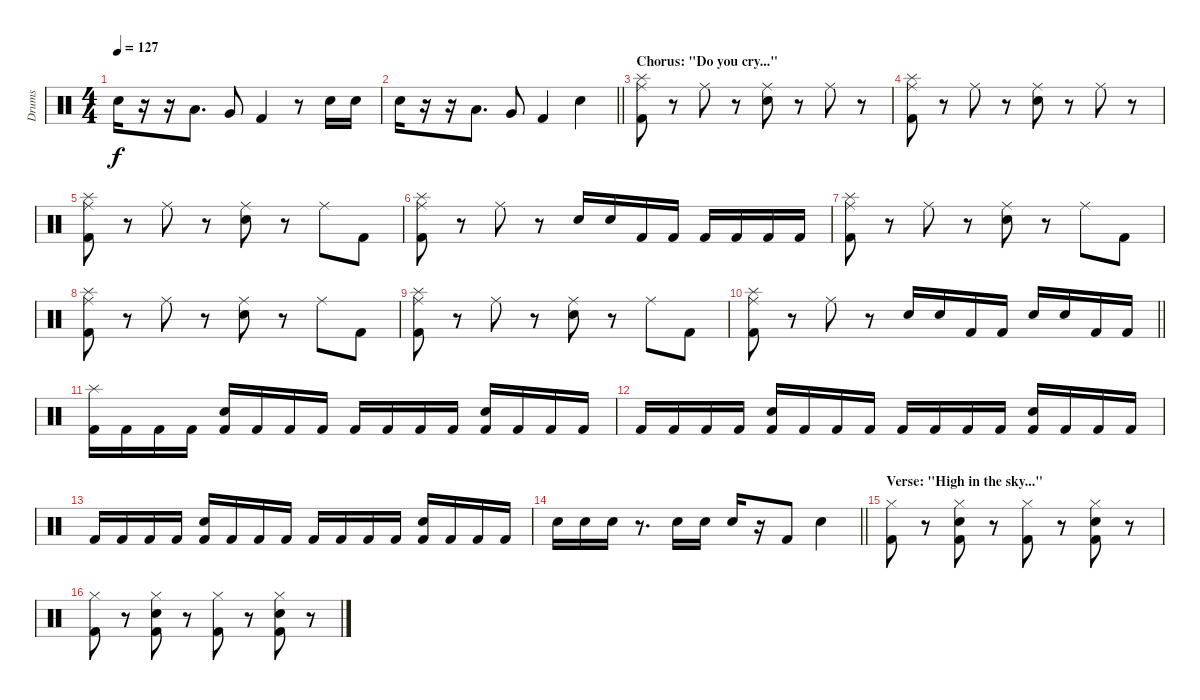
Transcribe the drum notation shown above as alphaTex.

\track ("Drums" "Drums") {instrument percussion}
\staff {score}
\articulation defaults
\ts (4 4)
\tempo 127
\clef neutral
\ks c "Electric Snare (hit)".16{dy f}
r.16 r.16 "Low Tom (hit)".8{d} "Very Low Tom (hit)".8 "Kick (hit) 2".4 r.8 "Electric Snare (hit)".16 "Electric Snare (hit)".16 |
\barLineRight lightlight "Electric Snare (hit)".16
r.16 r.16 "Low Tom (hit)".8{d} "Very Low Tom (hit)".8 "Kick (hit) 2".4 "Electric Snare (hit)".4 |
\section ("" "Chorus: \"Do you cry...\"")
("Ride (middle)" "Kick (hit) 2" "Splash (hit)").8 r.8 "Ride (middle)".8 r.8 ("Ride (middle)" "Electric Snare (hit)").8 r.8 "Ride (middle)".8 r.8 |
("Ride (middle)" "Kick (hit) 2" "Splash (hit)").8 r.8 "Ride (middle)".8 r.8 ("Ride (middle)" "Electric Snare (hit)").8 r.8 "Ride (middle)".8 r.8 |
("Ride (middle)" "Kick (hit) 2" "Splash (hit)").8 r.8 "Ride (middle)".8 r.8 ("Ride (middle)" "Electric Snare (hit)").8 r.8 "Ride (middle)".8 "Kick (hit) 2".8 |
("Ride (middle)" "Kick (hit) 2" "Splash (hit)").8 r.8 "Ride (middle)".8 r.8 "Electric Snare (hit)".16 "Electric Snare (hit)".16 "Kick (hit) 2".16 "Kick (hit) 2".16 "Kick (hit) 2".16 "Kick (hit) 2".16 "Kick (hit) 2".16 "Kick (hit) 2".16 |
("Ride (middle)" "Kick (hit) 2" "Splash (hit)").8 r.8 "Ride (middle)".8 r.8 ("Ride (middle)" "Electric Snare (hit)").8 r.8 "Ride (middle)".8 "Kick (hit) 2".8 |
("Ride (middle)" "Kick (hit) 2" "Splash (hit)").8 r.8 "Ride (middle)".8 r.8 ("Ride (middle)" "Electric Snare (hit)").8 r.8 "Ride (middle)".8 "Kick (hit) 2".8 |
("Ride (middle)" "Kick (hit) 2" "Splash (hit)").8 r.8 "Ride (middle)".8 r.8 ("Ride (middle)" "Electric Snare (hit)").8 r.8 "Ride (middle)".8 "Kick (hit) 2".8 |
\barLineRight lightlight
("Ride (middle)" "Kick (hit) 2" "Splash (hit)").8 r.8 "Ride (middle)".8 r.8 "Electric Snare (hit)".16 "Electric Snare (hit)".16 "Kick (hit) 2".16 "Kick (hit) 2".16 "Electric Snare (hit)".16 "Electric Snare (hit)".16 "Kick (hit) 2".16 "Kick (hit) 2".16 |
\section ("" "")
("Kick (hit) 2" "Splash (hit)").16 "Kick (hit) 2".16 "Kick (hit) 2".16 "Kick (hit) 2".16 ("Kick (hit) 2" "Electric Snare (hit)").16 "Kick (hit) 2".16 "Kick (hit) 2".16 "Kick (hit) 2".16 "Kick (hit) 2".16 "Kick (hit) 2".16 "Kick (hit) 2".16 "Kick (hit) 2".16 ("Kick (hit) 2" "Electric Snare (hit)").16 "Kick (hit) 2".16 "Kick (hit) 2".16 "Kick (hit) 2".16 |
"Kick (hit) 2".16 "Kick (hit) 2".16 "Kick (hit) 2".16 "Kick (hit) 2".16 ("Kick (hit) 2" "Electric Snare (hit)").16 "Kick (hit) 2".16 "Kick (hit) 2".16 "Kick (hit) 2".16 "Kick (hit) 2".16 "Kick (hit) 2".16 "Kick (hit) 2".16 "Kick (hit) 2".16 ("Kick (hit) 2" "Electric Snare (hit)").16 "Kick (hit) 2".16 "Kick (hit) 2".16 "Kick (hit) 2".16 |
"Kick (hit) 2".16 "Kick (hit) 2".16 "Kick (hit) 2".16 "Kick (hit) 2".16 ("Kick (hit) 2" "Electric Snare (hit)").16 "Kick (hit) 2".16 "Kick (hit) 2".16 "Kick (hit) 2".16 "Kick (hit) 2".16 "Kick (hit) 2".16 "Kick (hit) 2".16 "Kick (hit) 2".16 ("Kick (hit) 2" "Electric Snare (hit)").16 "Kick (hit) 2".16 "Kick (hit) 2".16 "Kick (hit) 2".16 |
\barLineRight lightlight "Electric Snare (hit)".16 "Electric Snare (hit)".16 "Electric Snare (hit)".16
r.8{d} "Electric Snare (hit)".16 "Electric Snare (hit)".16 "Electric Snare (hit)".16 r.16 "Kick (hit) 2".8 "Electric Snare (hit)".4 |
\section ("" "Verse: \"High in the sky...\"")
("Kick (hit) 2" "Hi-Hat (closed)").8 r.8 ("Kick (hit) 2" "Electric Snare (hit)" "Hi-Hat (closed)").8 r.8 ("Kick (hit) 2" "Hi-Hat (closed)").8 r.8 ("Kick (hit) 2" "Electric Snare (hit)" "Hi-Hat (closed)").8 r.8 |
("Kick (hit) 2" "Hi-Hat (closed)").8 r.8 ("Kick (hit) 2" "Electric Snare (hit)" "Hi-Hat (closed)").8 r.8 ("Kick (hit) 2" "Hi-Hat (closed)").8 r.8 ("Kick (hit) 2" "Electric Snare (hit)" "Hi-Hat (closed)").8 r.8
